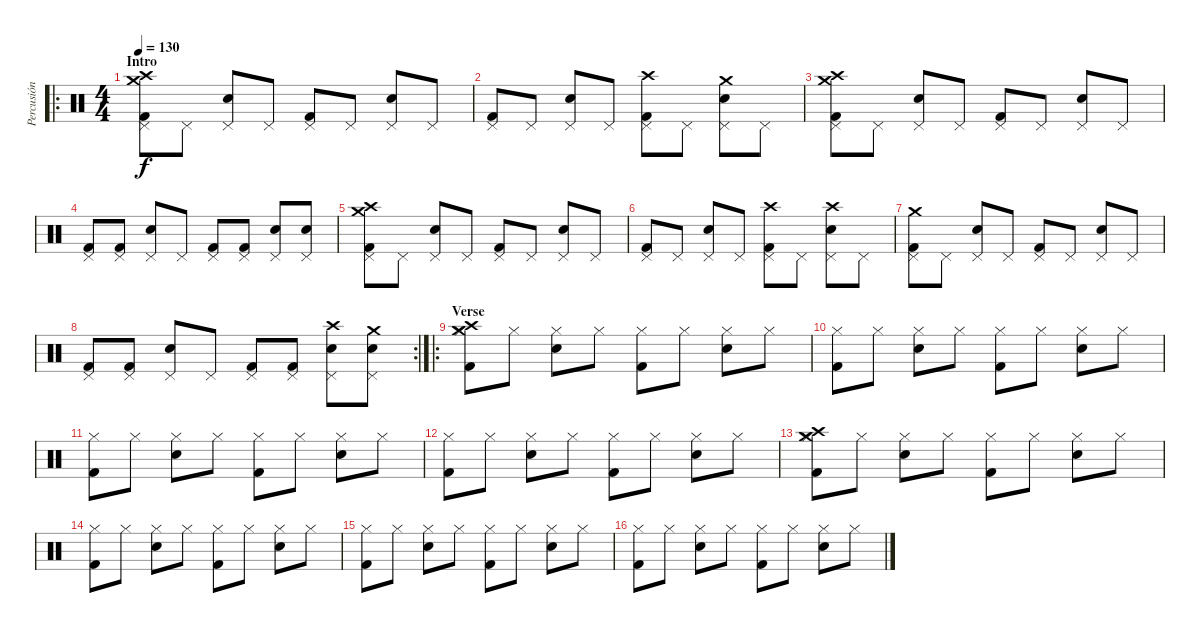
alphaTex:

\track ("Percusión" "Percusión") {instrument percussion}
\staff {score}
\articulation defaults
\ro
\ts (4 4)
\section ("" "Intro")
\tempo 130
\clef neutral
\ks c
("Crash medium (hit)" "Crash high (hit)" "Pedal Hi-Hat (hit)" "Kick (hit) 2").8{dy f} "Pedal Hi-Hat (hit)".8 ("Pedal Hi-Hat (hit)" "Snare (hit) 2").8 "Pedal Hi-Hat (hit)".8 ("Pedal Hi-Hat (hit)" "Kick (hit) 2").8 "Pedal Hi-Hat (hit)".8 ("Pedal Hi-Hat (hit)" "Snare (hit) 2").8 "Pedal Hi-Hat (hit)".8 |
("Pedal Hi-Hat (hit)" "Kick (hit) 2").8 "Pedal Hi-Hat (hit)".8 ("Pedal Hi-Hat (hit)" "Snare (hit) 2").8 "Pedal Hi-Hat (hit)".8 ("Crash high (hit)" "Pedal Hi-Hat (hit)" "Kick (hit) 2").8 "Pedal Hi-Hat (hit)".8 ("Crash medium (hit)" "Pedal Hi-Hat (hit)" "Snare (hit) 2").8 "Pedal Hi-Hat (hit)".8 |
("Crash medium (hit)" "Crash high (hit)" "Pedal Hi-Hat (hit)" "Kick (hit) 2").8 "Pedal Hi-Hat (hit)".8 ("Pedal Hi-Hat (hit)" "Snare (hit) 2").8 "Pedal Hi-Hat (hit)".8 ("Pedal Hi-Hat (hit)" "Kick (hit) 2").8 "Pedal Hi-Hat (hit)".8 ("Pedal Hi-Hat (hit)" "Snare (hit) 2").8 "Pedal Hi-Hat (hit)".8 |
("Pedal Hi-Hat (hit)" "Kick (hit) 2").8 ("Pedal Hi-Hat (hit)" "Kick (hit) 2").8 ("Pedal Hi-Hat (hit)" "Snare (hit) 2").8 "Pedal Hi-Hat (hit)".8 ("Pedal Hi-Hat (hit)" "Kick (hit) 2").8 ("Pedal Hi-Hat (hit)" "Kick (hit) 2").8 ("Pedal Hi-Hat (hit)" "Snare (hit) 2").8 ("Pedal Hi-Hat (hit)" "Snare (hit) 2").8 |
("Crash medium (hit)" "Crash high (hit)" "Pedal Hi-Hat (hit)" "Kick (hit) 2").8 "Pedal Hi-Hat (hit)".8 ("Pedal Hi-Hat (hit)" "Snare (hit) 2").8 "Pedal Hi-Hat (hit)".8 ("Pedal Hi-Hat (hit)" "Kick (hit) 2").8 "Pedal Hi-Hat (hit)".8 ("Pedal Hi-Hat (hit)" "Snare (hit) 2").8 "Pedal Hi-Hat (hit)".8 |
("Pedal Hi-Hat (hit)" "Kick (hit) 2").8 "Pedal Hi-Hat (hit)".8 ("Pedal Hi-Hat (hit)" "Snare (hit) 2").8 "Pedal Hi-Hat (hit)".8 ("Crash high (hit)" "Pedal Hi-Hat (hit)" "Kick (hit) 2").8 "Pedal Hi-Hat (hit)".8 ("Crash high (hit)" "Pedal Hi-Hat (hit)" "Snare (hit) 2").8 "Pedal Hi-Hat (hit)".8 |
("Crash medium (hit)" "Pedal Hi-Hat (hit)" "Kick (hit) 2").8 "Pedal Hi-Hat (hit)".8 ("Pedal Hi-Hat (hit)" "Snare (hit) 2").8 "Pedal Hi-Hat (hit)".8 ("Pedal Hi-Hat (hit)" "Kick (hit) 2").8 "Pedal Hi-Hat (hit)".8 ("Pedal Hi-Hat (hit)" "Snare (hit) 2").8 "Pedal Hi-Hat (hit)".8 |
\rc 2
("Pedal Hi-Hat (hit)" "Kick (hit) 2").8 ("Pedal Hi-Hat (hit)" "Kick (hit) 2").8 ("Pedal Hi-Hat (hit)" "Snare (hit) 2").8 "Pedal Hi-Hat (hit)".8 ("Pedal Hi-Hat (hit)" "Kick (hit) 2").8 ("Pedal Hi-Hat (hit)" "Kick (hit) 2").8 ("Crash high (hit)" "Pedal Hi-Hat (hit)" "Snare (hit) 2").8 ("Crash medium (hit)" "Pedal Hi-Hat (hit)" "Snare (hit) 2").8 |
\ro
\section ("" "Verse")
("Crash medium (hit)" "Crash high (hit)" "Hi-Hat (closed)" "Kick (hit) 2").8 "Hi-Hat (closed)".8 ("Hi-Hat (closed)" "Snare (hit) 2").8 "Hi-Hat (closed)".8 ("Hi-Hat (closed)" "Kick (hit) 2").8 "Hi-Hat (closed)".8 ("Hi-Hat (closed)" "Snare (hit) 2").8 "Hi-Hat (closed)".8 |
("Hi-Hat (closed)" "Kick (hit) 2").8 "Hi-Hat (closed)".8 ("Hi-Hat (closed)" "Snare (hit) 2").8 "Hi-Hat (closed)".8 ("Hi-Hat (closed)" "Kick (hit) 2").8 "Hi-Hat (closed)".8 ("Hi-Hat (closed)" "Snare (hit) 2").8 "Hi-Hat (closed)".8 |
("Hi-Hat (closed)" "Kick (hit) 2").8 "Hi-Hat (closed)".8 ("Hi-Hat (closed)" "Snare (hit) 2").8 "Hi-Hat (closed)".8 ("Hi-Hat (closed)" "Kick (hit) 2").8 "Hi-Hat (closed)".8 ("Hi-Hat (closed)" "Snare (hit) 2").8 "Hi-Hat (closed)".8 |
("Hi-Hat (closed)" "Kick (hit) 2").8 "Hi-Hat (closed)".8 ("Hi-Hat (closed)" "Snare (hit) 2").8 "Hi-Hat (closed)".8 ("Hi-Hat (closed)" "Kick (hit) 2").8 "Hi-Hat (closed)".8 ("Hi-Hat (closed)" "Snare (hit) 2").8 "Hi-Hat (closed)".8 |
("Crash medium (hit)" "Crash high (hit)" "Hi-Hat (closed)" "Kick (hit) 2").8 "Hi-Hat (closed)".8 ("Hi-Hat (closed)" "Snare (hit) 2").8 "Hi-Hat (closed)".8 ("Hi-Hat (closed)" "Kick (hit) 2").8 "Hi-Hat (closed)".8 ("Hi-Hat (closed)" "Snare (hit) 2").8 "Hi-Hat (closed)".8 |
("Hi-Hat (closed)" "Kick (hit) 2").8 "Hi-Hat (closed)".8 ("Hi-Hat (closed)" "Snare (hit) 2").8 "Hi-Hat (closed)".8 ("Hi-Hat (closed)" "Kick (hit) 2").8 "Hi-Hat (closed)".8 ("Hi-Hat (closed)" "Snare (hit) 2").8 "Hi-Hat (closed)".8 |
("Hi-Hat (closed)" "Kick (hit) 2").8 "Hi-Hat (closed)".8 ("Hi-Hat (closed)" "Snare (hit) 2").8 "Hi-Hat (closed)".8 ("Hi-Hat (closed)" "Kick (hit) 2").8 "Hi-Hat (closed)".8 ("Hi-Hat (closed)" "Snare (hit) 2").8 "Hi-Hat (closed)".8 |
("Hi-Hat (closed)" "Kick (hit) 2").8 "Hi-Hat (closed)".8 ("Hi-Hat (closed)" "Snare (hit) 2").8 "Hi-Hat (closed)".8 ("Hi-Hat (closed)" "Kick (hit) 2").8 "Hi-Hat (closed)".8 ("Hi-Hat (closed)" "Snare (hit) 2").8 "Hi-Hat (closed)".8
